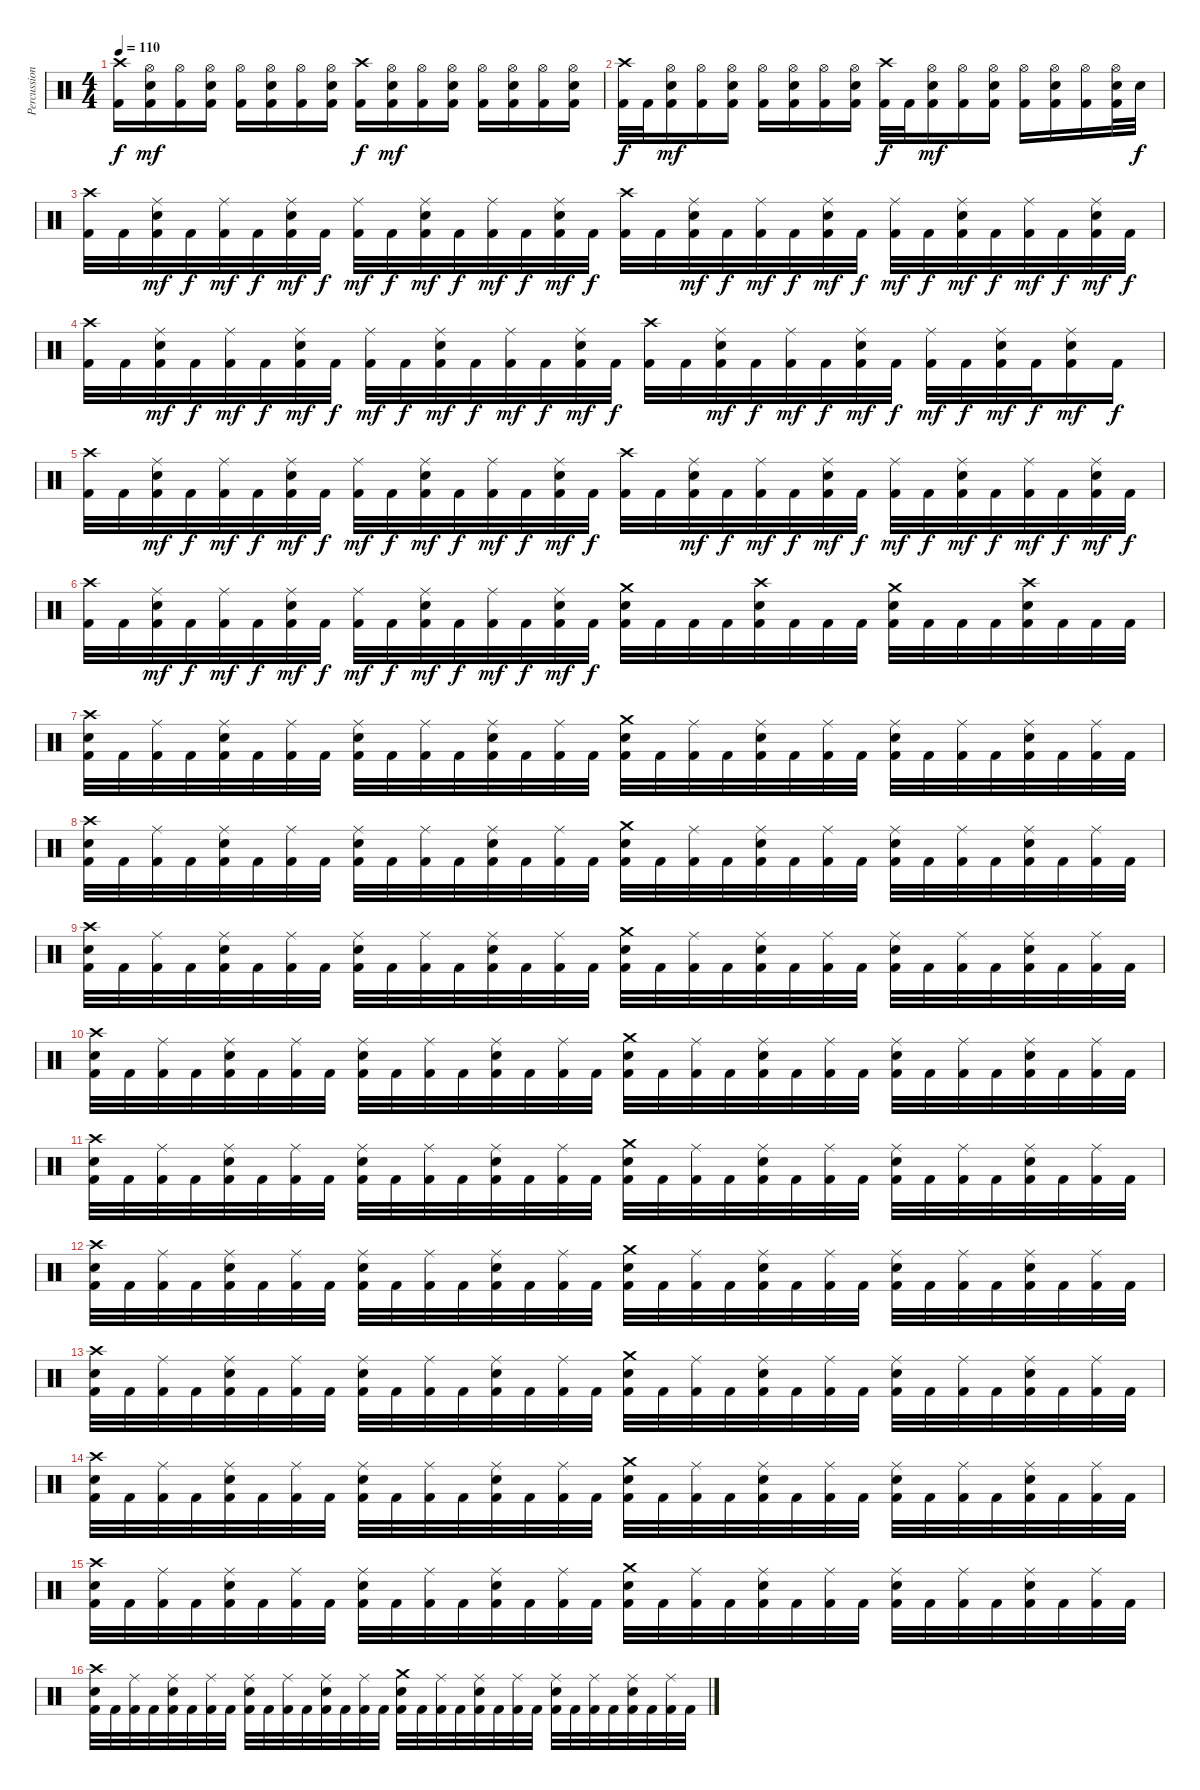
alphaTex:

\track ("Percussion" "Percussion") {instrument percussion}
\staff {score}
\articulation defaults
\ts (4 4)
\tempo 110
\clef neutral
\ks c
("Crash high (hit)" "Kick (hit) 2").16{dy f} ("Hi-Hat (open)" "Snare (hit) 2" "Kick (hit) 2").16{dy mf} ("Hi-Hat (open)" "Kick (hit) 2").16 ("Hi-Hat (open)" "Snare (hit) 2" "Kick (hit) 2").16 ("Hi-Hat (open)" "Kick (hit) 2").16 ("Hi-Hat (open)" "Snare (hit) 2" "Kick (hit) 2").16 ("Hi-Hat (open)" "Kick (hit) 2").16 ("Hi-Hat (open)" "Snare (hit) 2" "Kick (hit) 2").16 ("Crash high (hit)" "Kick (hit) 2").16{dy f} ("Hi-Hat (open)" "Snare (hit) 2" "Kick (hit) 2").16{dy mf} ("Hi-Hat (open)" "Kick (hit) 2").16 ("Hi-Hat (open)" "Snare (hit) 2" "Kick (hit) 2").16 ("Hi-Hat (open)" "Kick (hit) 2").16 ("Hi-Hat (open)" "Snare (hit) 2" "Kick (hit) 2").16 ("Hi-Hat (open)" "Kick (hit) 2").16 ("Hi-Hat (open)" "Snare (hit) 2" "Kick (hit) 2").16 |
("Crash high (hit)" "Kick (hit) 2").32{dy f} "Kick (hit) 2".32 ("Hi-Hat (open)" "Snare (hit) 2" "Kick (hit) 2").16{dy mf} ("Hi-Hat (open)" "Kick (hit) 2").16 ("Hi-Hat (open)" "Snare (hit) 2" "Kick (hit) 2").16 ("Hi-Hat (open)" "Kick (hit) 2").16 ("Hi-Hat (open)" "Snare (hit) 2" "Kick (hit) 2").16 ("Hi-Hat (open)" "Kick (hit) 2").16 ("Hi-Hat (open)" "Snare (hit) 2" "Kick (hit) 2").16 ("Crash high (hit)" "Kick (hit) 2").32{dy f} "Kick (hit) 2".32 ("Hi-Hat (open)" "Snare (hit) 2" "Kick (hit) 2").16{dy mf} ("Hi-Hat (open)" "Kick (hit) 2").16 ("Hi-Hat (open)" "Snare (hit) 2" "Kick (hit) 2").16 ("Hi-Hat (open)" "Kick (hit) 2").16 ("Hi-Hat (open)" "Snare (hit) 2" "Kick (hit) 2").16 ("Hi-Hat (open)" "Kick (hit) 2").16 ("Hi-Hat (open)" "Snare (hit) 2" "Kick (hit) 2").32 "Snare (hit) 2".32{dy f} |
("Crash high (hit)" "Kick (hit) 2").32 "Kick (hit) 2".32 ("Ride (middle)" "Snare (hit) 2" "Kick (hit) 2").32{dy mf} "Kick (hit) 2".32{dy f} ("Ride (middle)" "Kick (hit) 2").32{dy mf} "Kick (hit) 2".32{dy f} ("Ride (middle)" "Snare (hit) 2" "Kick (hit) 2").32{dy mf} "Kick (hit) 2".32{dy f} ("Ride (middle)" "Kick (hit) 2").32{dy mf} "Kick (hit) 2".32{dy f} ("Ride (middle)" "Snare (hit) 2" "Kick (hit) 2").32{dy mf} "Kick (hit) 2".32{dy f} ("Ride (middle)" "Kick (hit) 2").32{dy mf} "Kick (hit) 2".32{dy f} ("Ride (middle)" "Snare (hit) 2" "Kick (hit) 2").32{dy mf} "Kick (hit) 2".32{dy f} ("Crash high (hit)" "Kick (hit) 2").32 "Kick (hit) 2".32 ("Ride (middle)" "Snare (hit) 2" "Kick (hit) 2").32{dy mf} "Kick (hit) 2".32{dy f} ("Ride (middle)" "Kick (hit) 2").32{dy mf} "Kick (hit) 2".32{dy f} ("Ride (middle)" "Snare (hit) 2" "Kick (hit) 2").32{dy mf} "Kick (hit) 2".32{dy f} ("Ride (middle)" "Kick (hit) 2").32{dy mf} "Kick (hit) 2".32{dy f} ("Ride (middle)" "Snare (hit) 2" "Kick (hit) 2").32{dy mf} "Kick (hit) 2".32{dy f} ("Ride (middle)" "Kick (hit) 2").32{dy mf} "Kick (hit) 2".32{dy f} ("Ride (middle)" "Snare (hit) 2" "Kick (hit) 2").32{dy mf} "Kick (hit) 2".32{dy f} |
("Crash high (hit)" "Kick (hit) 2").32 "Kick (hit) 2".32 ("Ride (middle)" "Snare (hit) 2" "Kick (hit) 2").32{dy mf} "Kick (hit) 2".32{dy f} ("Ride (middle)" "Kick (hit) 2").32{dy mf} "Kick (hit) 2".32{dy f} ("Ride (middle)" "Snare (hit) 2" "Kick (hit) 2").32{dy mf} "Kick (hit) 2".32{dy f} ("Ride (middle)" "Kick (hit) 2").32{dy mf} "Kick (hit) 2".32{dy f} ("Ride (middle)" "Snare (hit) 2" "Kick (hit) 2").32{dy mf} "Kick (hit) 2".32{dy f} ("Ride (middle)" "Kick (hit) 2").32{dy mf} "Kick (hit) 2".32{dy f} ("Ride (middle)" "Snare (hit) 2" "Kick (hit) 2").32{dy mf} "Kick (hit) 2".32{dy f} ("Crash high (hit)" "Kick (hit) 2").32 "Kick (hit) 2".32 ("Ride (middle)" "Snare (hit) 2" "Kick (hit) 2").32{dy mf} "Kick (hit) 2".32{dy f} ("Ride (middle)" "Kick (hit) 2").32{dy mf} "Kick (hit) 2".32{dy f} ("Ride (middle)" "Snare (hit) 2" "Kick (hit) 2").32{dy mf} "Kick (hit) 2".32{dy f} ("Ride (middle)" "Kick (hit) 2").32{dy mf} "Kick (hit) 2".32{dy f} ("Ride (middle)" "Snare (hit) 2" "Kick (hit) 2").32{dy mf} "Kick (hit) 2".32{dy f} ("Ride (middle)" "Snare (hit) 2" "Kick (hit) 2").16{dy mf} "Kick (hit) 2".16{dy f} |
("Crash high (hit)" "Kick (hit) 2").32 "Kick (hit) 2".32 ("Ride (middle)" "Snare (hit) 2" "Kick (hit) 2").32{dy mf} "Kick (hit) 2".32{dy f} ("Ride (middle)" "Kick (hit) 2").32{dy mf} "Kick (hit) 2".32{dy f} ("Ride (middle)" "Snare (hit) 2" "Kick (hit) 2").32{dy mf} "Kick (hit) 2".32{dy f} ("Ride (middle)" "Kick (hit) 2").32{dy mf} "Kick (hit) 2".32{dy f} ("Ride (middle)" "Snare (hit) 2" "Kick (hit) 2").32{dy mf} "Kick (hit) 2".32{dy f} ("Ride (middle)" "Kick (hit) 2").32{dy mf} "Kick (hit) 2".32{dy f} ("Ride (middle)" "Snare (hit) 2" "Kick (hit) 2").32{dy mf} "Kick (hit) 2".32{dy f} ("Crash high (hit)" "Kick (hit) 2").32 "Kick (hit) 2".32 ("Ride (middle)" "Snare (hit) 2" "Kick (hit) 2").32{dy mf} "Kick (hit) 2".32{dy f} ("Ride (middle)" "Kick (hit) 2").32{dy mf} "Kick (hit) 2".32{dy f} ("Ride (middle)" "Snare (hit) 2" "Kick (hit) 2").32{dy mf} "Kick (hit) 2".32{dy f} ("Ride (middle)" "Kick (hit) 2").32{dy mf} "Kick (hit) 2".32{dy f} ("Ride (middle)" "Snare (hit) 2" "Kick (hit) 2").32{dy mf} "Kick (hit) 2".32{dy f} ("Ride (middle)" "Kick (hit) 2").32{dy mf} "Kick (hit) 2".32{dy f} ("Ride (middle)" "Snare (hit) 2" "Kick (hit) 2").32{dy mf} "Kick (hit) 2".32{dy f} |
("Crash high (hit)" "Kick (hit) 2").32 "Kick (hit) 2".32 ("Ride (middle)" "Snare (hit) 2" "Kick (hit) 2").32{dy mf} "Kick (hit) 2".32{dy f} ("Ride (middle)" "Kick (hit) 2").32{dy mf} "Kick (hit) 2".32{dy f} ("Ride (middle)" "Snare (hit) 2" "Kick (hit) 2").32{dy mf} "Kick (hit) 2".32{dy f} ("Ride (middle)" "Kick (hit) 2").32{dy mf} "Kick (hit) 2".32{dy f} ("Ride (middle)" "Snare (hit) 2" "Kick (hit) 2").32{dy mf} "Kick (hit) 2".32{dy f} ("Ride (middle)" "Kick (hit) 2").32{dy mf} "Kick (hit) 2".32{dy f} ("Ride (middle)" "Snare (hit) 2" "Kick (hit) 2").32{dy mf} "Kick (hit) 2".32{dy f} ("Crash medium (hit)" "Snare (hit) 2" "Kick (hit) 2").32 "Kick (hit) 2".32 "Kick (hit) 2".32 "Kick (hit) 2".32 ("Crash high (hit)" "Snare (hit) 2" "Kick (hit) 2").32 "Kick (hit) 2".32 "Kick (hit) 2".32 "Kick (hit) 2".32 ("Crash medium (hit)" "Snare (hit) 2" "Kick (hit) 2").32 "Kick (hit) 2".32 "Kick (hit) 2".32 "Kick (hit) 2".32 ("Crash high (hit)" "Snare (hit) 2" "Kick (hit) 2").32 "Kick (hit) 2".32 "Kick (hit) 2".32 "Kick (hit) 2".32 |
\section ("" "")
("Crash high (hit)" "Snare (hit) 2" "Kick (hit) 2").32 "Kick (hit) 2".32 ("Ride (middle)" "Kick (hit) 2").32 "Kick (hit) 2".32 ("Ride (middle)" "Snare (hit) 2" "Kick (hit) 2").32 "Kick (hit) 2".32 ("Ride (middle)" "Kick (hit) 2").32 "Kick (hit) 2".32 ("Ride (middle)" "Snare (hit) 2" "Kick (hit) 2").32 "Kick (hit) 2".32 ("Ride (middle)" "Kick (hit) 2").32 "Kick (hit) 2".32 ("Ride (middle)" "Snare (hit) 2" "Kick (hit) 2").32 "Kick (hit) 2".32 ("Ride (middle)" "Kick (hit) 2").32 "Kick (hit) 2".32 ("Crash medium (hit)" "Snare (hit) 2" "Kick (hit) 2").32 "Kick (hit) 2".32 ("Ride (middle)" "Kick (hit) 2").32 "Kick (hit) 2".32 ("Ride (middle)" "Snare (hit) 2" "Kick (hit) 2").32 "Kick (hit) 2".32 ("Ride (middle)" "Kick (hit) 2").32 "Kick (hit) 2".32 ("Ride (middle)" "Snare (hit) 2" "Kick (hit) 2").32 "Kick (hit) 2".32 ("Ride (middle)" "Kick (hit) 2").32 "Kick (hit) 2".32 ("Ride (middle)" "Snare (hit) 2" "Kick (hit) 2").32 "Kick (hit) 2".32 ("Ride (middle)" "Kick (hit) 2").32 "Kick (hit) 2".32 |
("Crash high (hit)" "Snare (hit) 2" "Kick (hit) 2").32 "Kick (hit) 2".32 ("Ride (middle)" "Kick (hit) 2").32 "Kick (hit) 2".32 ("Ride (middle)" "Snare (hit) 2" "Kick (hit) 2").32 "Kick (hit) 2".32 ("Ride (middle)" "Kick (hit) 2").32 "Kick (hit) 2".32 ("Ride (middle)" "Snare (hit) 2" "Kick (hit) 2").32 "Kick (hit) 2".32 ("Ride (middle)" "Kick (hit) 2").32 "Kick (hit) 2".32 ("Ride (middle)" "Snare (hit) 2" "Kick (hit) 2").32 "Kick (hit) 2".32 ("Ride (middle)" "Kick (hit) 2").32 "Kick (hit) 2".32 ("Crash medium (hit)" "Snare (hit) 2" "Kick (hit) 2").32 "Kick (hit) 2".32 ("Ride (middle)" "Kick (hit) 2").32 "Kick (hit) 2".32 ("Ride (middle)" "Snare (hit) 2" "Kick (hit) 2").32 "Kick (hit) 2".32 ("Ride (middle)" "Kick (hit) 2").32 "Kick (hit) 2".32 ("Ride (middle)" "Snare (hit) 2" "Kick (hit) 2").32 "Kick (hit) 2".32 ("Ride (middle)" "Kick (hit) 2").32 "Kick (hit) 2".32 ("Ride (middle)" "Snare (hit) 2" "Kick (hit) 2").32 "Kick (hit) 2".32 ("Ride (middle)" "Kick (hit) 2").32 "Kick (hit) 2".32 |
("Crash high (hit)" "Snare (hit) 2" "Kick (hit) 2").32 "Kick (hit) 2".32 ("Ride (middle)" "Kick (hit) 2").32 "Kick (hit) 2".32 ("Ride (middle)" "Snare (hit) 2" "Kick (hit) 2").32 "Kick (hit) 2".32 ("Ride (middle)" "Kick (hit) 2").32 "Kick (hit) 2".32 ("Ride (middle)" "Snare (hit) 2" "Kick (hit) 2").32 "Kick (hit) 2".32 ("Ride (middle)" "Kick (hit) 2").32 "Kick (hit) 2".32 ("Ride (middle)" "Snare (hit) 2" "Kick (hit) 2").32 "Kick (hit) 2".32 ("Ride (middle)" "Kick (hit) 2").32 "Kick (hit) 2".32 ("Crash medium (hit)" "Snare (hit) 2" "Kick (hit) 2").32 "Kick (hit) 2".32 ("Ride (middle)" "Kick (hit) 2").32 "Kick (hit) 2".32 ("Ride (middle)" "Snare (hit) 2" "Kick (hit) 2").32 "Kick (hit) 2".32 ("Ride (middle)" "Kick (hit) 2").32 "Kick (hit) 2".32 ("Ride (middle)" "Snare (hit) 2" "Kick (hit) 2").32 "Kick (hit) 2".32 ("Ride (middle)" "Kick (hit) 2").32 "Kick (hit) 2".32 ("Ride (middle)" "Snare (hit) 2" "Kick (hit) 2").32 "Kick (hit) 2".32 ("Ride (middle)" "Kick (hit) 2").32 "Kick (hit) 2".32 |
("Crash high (hit)" "Snare (hit) 2" "Kick (hit) 2").32 "Kick (hit) 2".32 ("Ride (middle)" "Kick (hit) 2").32 "Kick (hit) 2".32 ("Ride (middle)" "Snare (hit) 2" "Kick (hit) 2").32 "Kick (hit) 2".32 ("Ride (middle)" "Kick (hit) 2").32 "Kick (hit) 2".32 ("Ride (middle)" "Snare (hit) 2" "Kick (hit) 2").32 "Kick (hit) 2".32 ("Ride (middle)" "Kick (hit) 2").32 "Kick (hit) 2".32 ("Ride (middle)" "Snare (hit) 2" "Kick (hit) 2").32 "Kick (hit) 2".32 ("Ride (middle)" "Kick (hit) 2").32 "Kick (hit) 2".32 ("Crash medium (hit)" "Snare (hit) 2" "Kick (hit) 2").32 "Kick (hit) 2".32 ("Ride (middle)" "Kick (hit) 2").32 "Kick (hit) 2".32 ("Ride (middle)" "Snare (hit) 2" "Kick (hit) 2").32 "Kick (hit) 2".32 ("Ride (middle)" "Kick (hit) 2").32 "Kick (hit) 2".32 ("Ride (middle)" "Snare (hit) 2" "Kick (hit) 2").32 "Kick (hit) 2".32 ("Ride (middle)" "Kick (hit) 2").32 "Kick (hit) 2".32 ("Ride (middle)" "Snare (hit) 2" "Kick (hit) 2").32 "Kick (hit) 2".32 ("Ride (middle)" "Kick (hit) 2").32 "Kick (hit) 2".32 |
("Crash high (hit)" "Snare (hit) 2" "Kick (hit) 2").32 "Kick (hit) 2".32 ("Ride (middle)" "Kick (hit) 2").32 "Kick (hit) 2".32 ("Ride (middle)" "Snare (hit) 2" "Kick (hit) 2").32 "Kick (hit) 2".32 ("Ride (middle)" "Kick (hit) 2").32 "Kick (hit) 2".32 ("Ride (middle)" "Snare (hit) 2" "Kick (hit) 2").32 "Kick (hit) 2".32 ("Ride (middle)" "Kick (hit) 2").32 "Kick (hit) 2".32 ("Ride (middle)" "Snare (hit) 2" "Kick (hit) 2").32 "Kick (hit) 2".32 ("Ride (middle)" "Kick (hit) 2").32 "Kick (hit) 2".32 ("Crash medium (hit)" "Snare (hit) 2" "Kick (hit) 2").32 "Kick (hit) 2".32 ("Ride (middle)" "Kick (hit) 2").32 "Kick (hit) 2".32 ("Ride (middle)" "Snare (hit) 2" "Kick (hit) 2").32 "Kick (hit) 2".32 ("Ride (middle)" "Kick (hit) 2").32 "Kick (hit) 2".32 ("Ride (middle)" "Snare (hit) 2" "Kick (hit) 2").32 "Kick (hit) 2".32 ("Ride (middle)" "Kick (hit) 2").32 "Kick (hit) 2".32 ("Ride (middle)" "Snare (hit) 2" "Kick (hit) 2").32 "Kick (hit) 2".32 ("Ride (middle)" "Kick (hit) 2").32 "Kick (hit) 2".32 |
("Crash high (hit)" "Snare (hit) 2" "Kick (hit) 2").32 "Kick (hit) 2".32 ("Ride (middle)" "Kick (hit) 2").32 "Kick (hit) 2".32 ("Ride (middle)" "Snare (hit) 2" "Kick (hit) 2").32 "Kick (hit) 2".32 ("Ride (middle)" "Kick (hit) 2").32 "Kick (hit) 2".32 ("Ride (middle)" "Snare (hit) 2" "Kick (hit) 2").32 "Kick (hit) 2".32 ("Ride (middle)" "Kick (hit) 2").32 "Kick (hit) 2".32 ("Ride (middle)" "Snare (hit) 2" "Kick (hit) 2").32 "Kick (hit) 2".32 ("Ride (middle)" "Kick (hit) 2").32 "Kick (hit) 2".32 ("Crash medium (hit)" "Snare (hit) 2" "Kick (hit) 2").32 "Kick (hit) 2".32 ("Ride (middle)" "Kick (hit) 2").32 "Kick (hit) 2".32 ("Ride (middle)" "Snare (hit) 2" "Kick (hit) 2").32 "Kick (hit) 2".32 ("Ride (middle)" "Kick (hit) 2").32 "Kick (hit) 2".32 ("Ride (middle)" "Snare (hit) 2" "Kick (hit) 2").32 "Kick (hit) 2".32 ("Ride (middle)" "Kick (hit) 2").32 "Kick (hit) 2".32 ("Ride (middle)" "Snare (hit) 2" "Kick (hit) 2").32 "Kick (hit) 2".32 ("Ride (middle)" "Kick (hit) 2").32 "Kick (hit) 2".32 |
("Crash high (hit)" "Snare (hit) 2" "Kick (hit) 2").32 "Kick (hit) 2".32 ("Ride (middle)" "Kick (hit) 2").32 "Kick (hit) 2".32 ("Ride (middle)" "Snare (hit) 2" "Kick (hit) 2").32 "Kick (hit) 2".32 ("Ride (middle)" "Kick (hit) 2").32 "Kick (hit) 2".32 ("Ride (middle)" "Snare (hit) 2" "Kick (hit) 2").32 "Kick (hit) 2".32 ("Ride (middle)" "Kick (hit) 2").32 "Kick (hit) 2".32 ("Ride (middle)" "Snare (hit) 2" "Kick (hit) 2").32 "Kick (hit) 2".32 ("Ride (middle)" "Kick (hit) 2").32 "Kick (hit) 2".32 ("Crash medium (hit)" "Snare (hit) 2" "Kick (hit) 2").32 "Kick (hit) 2".32 ("Ride (middle)" "Kick (hit) 2").32 "Kick (hit) 2".32 ("Ride (middle)" "Snare (hit) 2" "Kick (hit) 2").32 "Kick (hit) 2".32 ("Ride (middle)" "Kick (hit) 2").32 "Kick (hit) 2".32 ("Ride (middle)" "Snare (hit) 2" "Kick (hit) 2").32 "Kick (hit) 2".32 ("Ride (middle)" "Kick (hit) 2").32 "Kick (hit) 2".32 ("Ride (middle)" "Snare (hit) 2" "Kick (hit) 2").32 "Kick (hit) 2".32 ("Ride (middle)" "Kick (hit) 2").32 "Kick (hit) 2".32 |
("Crash high (hit)" "Snare (hit) 2" "Kick (hit) 2").32 "Kick (hit) 2".32 ("Ride (middle)" "Kick (hit) 2").32 "Kick (hit) 2".32 ("Ride (middle)" "Snare (hit) 2" "Kick (hit) 2").32 "Kick (hit) 2".32 ("Ride (middle)" "Kick (hit) 2").32 "Kick (hit) 2".32 ("Ride (middle)" "Snare (hit) 2" "Kick (hit) 2").32 "Kick (hit) 2".32 ("Ride (middle)" "Kick (hit) 2").32 "Kick (hit) 2".32 ("Ride (middle)" "Snare (hit) 2" "Kick (hit) 2").32 "Kick (hit) 2".32 ("Ride (middle)" "Kick (hit) 2").32 "Kick (hit) 2".32 ("Crash medium (hit)" "Snare (hit) 2" "Kick (hit) 2").32 "Kick (hit) 2".32 ("Ride (middle)" "Kick (hit) 2").32 "Kick (hit) 2".32 ("Ride (middle)" "Snare (hit) 2" "Kick (hit) 2").32 "Kick (hit) 2".32 ("Ride (middle)" "Kick (hit) 2").32 "Kick (hit) 2".32 ("Ride (middle)" "Snare (hit) 2" "Kick (hit) 2").32 "Kick (hit) 2".32 ("Ride (middle)" "Kick (hit) 2").32 "Kick (hit) 2".32 ("Ride (middle)" "Snare (hit) 2" "Kick (hit) 2").32 "Kick (hit) 2".32 ("Ride (middle)" "Kick (hit) 2").32 "Kick (hit) 2".32 |
("Crash high (hit)" "Snare (hit) 2" "Kick (hit) 2").32 "Kick (hit) 2".32 ("Ride (middle)" "Kick (hit) 2").32 "Kick (hit) 2".32 ("Ride (middle)" "Snare (hit) 2" "Kick (hit) 2").32 "Kick (hit) 2".32 ("Ride (middle)" "Kick (hit) 2").32 "Kick (hit) 2".32 ("Ride (middle)" "Snare (hit) 2" "Kick (hit) 2").32 "Kick (hit) 2".32 ("Ride (middle)" "Kick (hit) 2").32 "Kick (hit) 2".32 ("Ride (middle)" "Snare (hit) 2" "Kick (hit) 2").32 "Kick (hit) 2".32 ("Ride (middle)" "Kick (hit) 2").32 "Kick (hit) 2".32 ("Crash medium (hit)" "Snare (hit) 2" "Kick (hit) 2").32 "Kick (hit) 2".32 ("Ride (middle)" "Kick (hit) 2").32 "Kick (hit) 2".32 ("Ride (middle)" "Snare (hit) 2" "Kick (hit) 2").32 "Kick (hit) 2".32 ("Ride (middle)" "Kick (hit) 2").32 "Kick (hit) 2".32 ("Ride (middle)" "Snare (hit) 2" "Kick (hit) 2").32 "Kick (hit) 2".32 ("Ride (middle)" "Kick (hit) 2").32 "Kick (hit) 2".32 ("Ride (middle)" "Snare (hit) 2" "Kick (hit) 2").32 "Kick (hit) 2".32 ("Ride (middle)" "Kick (hit) 2").32 "Kick (hit) 2".32 |
("Crash high (hit)" "Snare (hit) 2" "Kick (hit) 2").32 "Kick (hit) 2".32 ("Ride (middle)" "Kick (hit) 2").32 "Kick (hit) 2".32 ("Ride (middle)" "Snare (hit) 2" "Kick (hit) 2").32 "Kick (hit) 2".32 ("Ride (middle)" "Kick (hit) 2").32 "Kick (hit) 2".32 ("Ride (middle)" "Snare (hit) 2" "Kick (hit) 2").32 "Kick (hit) 2".32 ("Ride (middle)" "Kick (hit) 2").32 "Kick (hit) 2".32 ("Ride (middle)" "Snare (hit) 2" "Kick (hit) 2").32 "Kick (hit) 2".32 ("Ride (middle)" "Kick (hit) 2").32 "Kick (hit) 2".32 ("Crash medium (hit)" "Snare (hit) 2" "Kick (hit) 2").32 "Kick (hit) 2".32 ("Ride (middle)" "Kick (hit) 2").32 "Kick (hit) 2".32 ("Ride (middle)" "Snare (hit) 2" "Kick (hit) 2").32 "Kick (hit) 2".32 ("Ride (middle)" "Kick (hit) 2").32 "Kick (hit) 2".32 ("Ride (middle)" "Snare (hit) 2" "Kick (hit) 2").32 "Kick (hit) 2".32 ("Ride (middle)" "Kick (hit) 2").32 "Kick (hit) 2".32 ("Ride (middle)" "Snare (hit) 2" "Kick (hit) 2").32 "Kick (hit) 2".32 ("Ride (middle)" "Kick (hit) 2").32 "Kick (hit) 2".32
